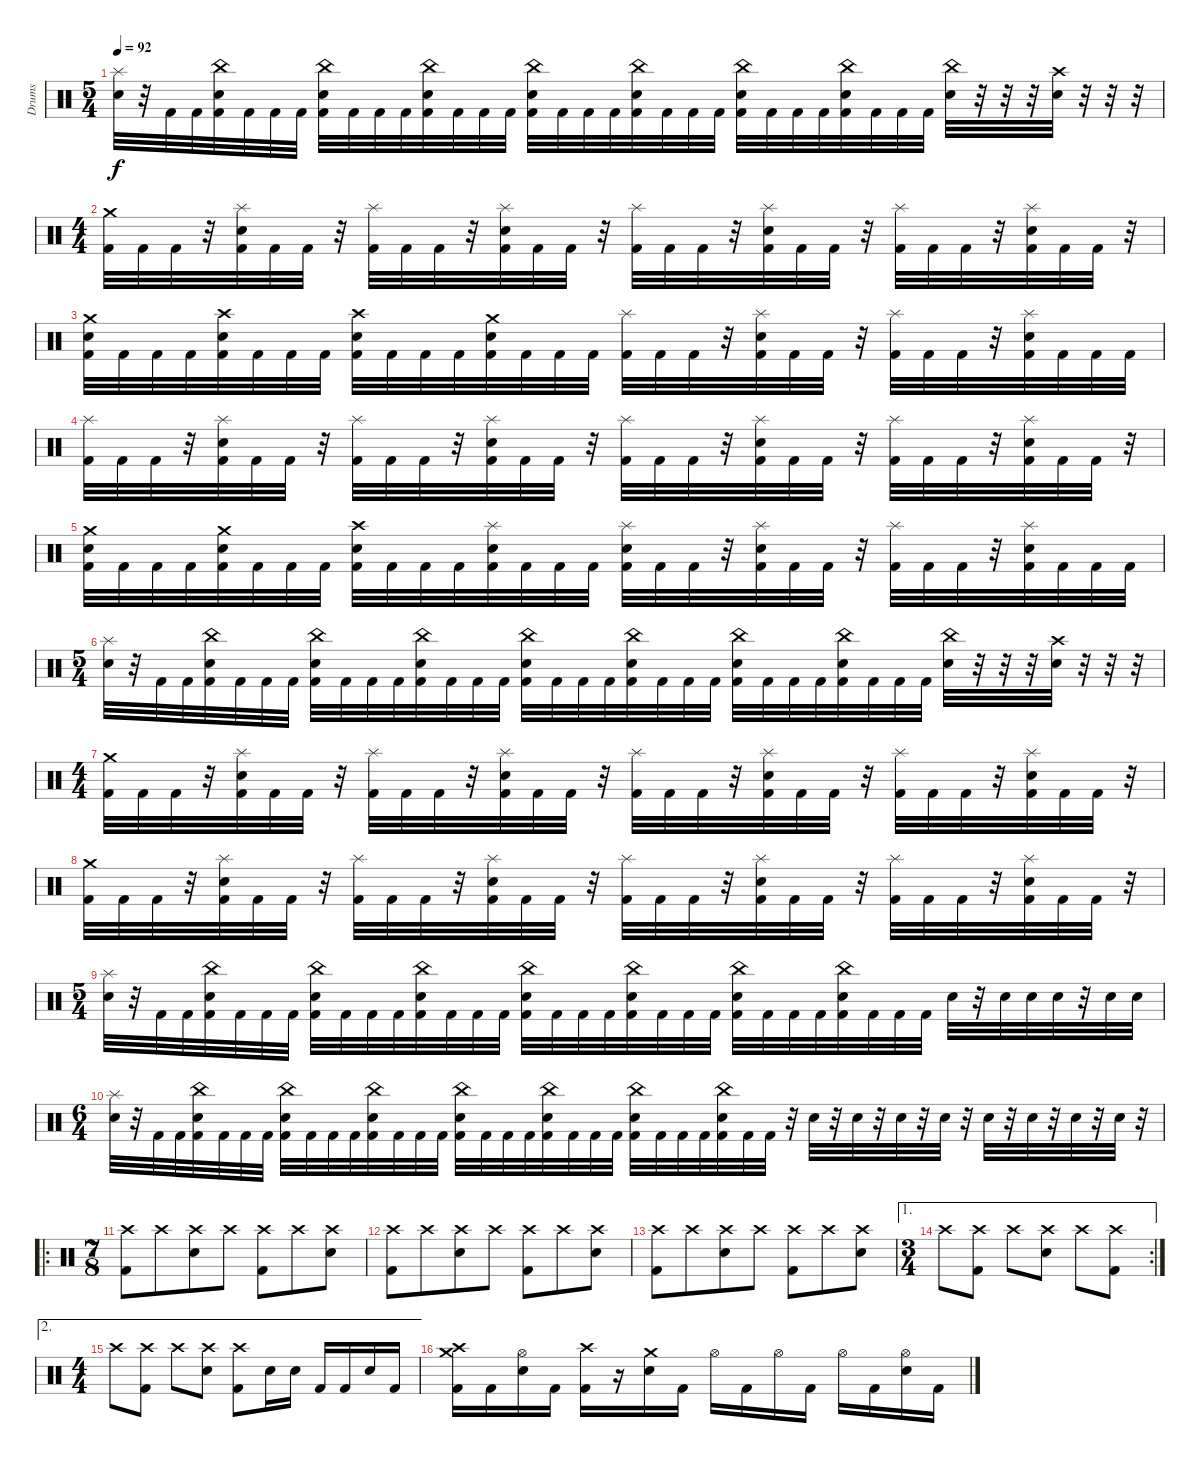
\track ("Drums" "Drums") {instrument percussion}
\staff {score}
\articulation defaults
\ts (5 4)
\tempo 92
\clef neutral
\ks c
("Splash (hit)" "Snare (hit) 2").32{dy f} r.32 "Kick (hit) 2".32 "Kick (hit) 2".32 ("China (hit)" "Snare (hit) 2" "Kick (hit) 2").32 "Kick (hit) 2".32 "Kick (hit) 2".32 "Kick (hit) 2".32 ("China (hit)" "Snare (hit) 2" "Kick (hit) 2").32 "Kick (hit) 2".32 "Kick (hit) 2".32 "Kick (hit) 2".32 ("China (hit)" "Snare (hit) 2" "Kick (hit) 2").32 "Kick (hit) 2".32 "Kick (hit) 2".32 "Kick (hit) 2".32 ("China (hit)" "Snare (hit) 2" "Kick (hit) 2").32 "Kick (hit) 2".32 "Kick (hit) 2".32 "Kick (hit) 2".32 ("China (hit)" "Snare (hit) 2" "Kick (hit) 2").32 "Kick (hit) 2".32 "Kick (hit) 2".32 "Kick (hit) 2".32 ("China (hit)" "Snare (hit) 2" "Kick (hit) 2").32 "Kick (hit) 2".32 "Kick (hit) 2".32 "Kick (hit) 2".32 ("China (hit)" "Snare (hit) 2" "Kick (hit) 2").32 "Kick (hit) 2".32 "Kick (hit) 2".32 "Kick (hit) 2".32 ("China (hit)" "Snare (hit) 2").32 r.32 r.32 r.32 ("Crash high (hit)" "Snare (hit) 2").32 r.32 r.32 r.32 |
\ts (4 4)
("Crash medium (hit)" "Kick (hit) 2").32 "Kick (hit) 2".32 "Kick (hit) 2".32 r.32 ("Splash (hit)" "Snare (hit) 2" "Kick (hit) 2").32 "Kick (hit) 2".32 "Kick (hit) 2".32 r.32 ("Splash (hit)" "Kick (hit) 2").32 "Kick (hit) 2".32 "Kick (hit) 2".32 r.32 ("Splash (hit)" "Snare (hit) 2" "Kick (hit) 2").32 "Kick (hit) 2".32 "Kick (hit) 2".32 r.32 ("Splash (hit)" "Kick (hit) 2").32 "Kick (hit) 2".32 "Kick (hit) 2".32 r.32 ("Splash (hit)" "Snare (hit) 2" "Kick (hit) 2").32 "Kick (hit) 2".32 "Kick (hit) 2".32 r.32 ("Splash (hit)" "Kick (hit) 2").32 "Kick (hit) 2".32 "Kick (hit) 2".32 r.32 ("Splash (hit)" "Snare (hit) 2" "Kick (hit) 2").32 "Kick (hit) 2".32 "Kick (hit) 2".32 r.32 |
("Crash medium (hit)" "Snare (hit) 2" "Kick (hit) 2").32 "Kick (hit) 2".32 "Kick (hit) 2".32 "Kick (hit) 2".32 ("Crash high (hit)" "Snare (hit) 2" "Kick (hit) 2").32 "Kick (hit) 2".32 "Kick (hit) 2".32 "Kick (hit) 2".32 ("Crash high (hit)" "Snare (hit) 2" "Kick (hit) 2").32 "Kick (hit) 2".32 "Kick (hit) 2".32 "Kick (hit) 2".32 ("Crash medium (hit)" "Snare (hit) 2" "Kick (hit) 2").32 "Kick (hit) 2".32 "Kick (hit) 2".32 "Kick (hit) 2".32 ("Splash (hit)" "Kick (hit) 2").32 "Kick (hit) 2".32 "Kick (hit) 2".32 r.32 ("Splash (hit)" "Snare (hit) 2" "Kick (hit) 2").32 "Kick (hit) 2".32 "Kick (hit) 2".32 r.32 ("Splash (hit)" "Kick (hit) 2").32 "Kick (hit) 2".32 "Kick (hit) 2".32 r.32 ("Splash (hit)" "Snare (hit) 2" "Kick (hit) 2").32 "Kick (hit) 2".32 "Kick (hit) 2".32 "Kick (hit) 2".32 |
("Splash (hit)" "Kick (hit) 2").32 "Kick (hit) 2".32 "Kick (hit) 2".32 r.32 ("Splash (hit)" "Snare (hit) 2" "Kick (hit) 2").32 "Kick (hit) 2".32 "Kick (hit) 2".32 r.32 ("Splash (hit)" "Kick (hit) 2").32 "Kick (hit) 2".32 "Kick (hit) 2".32 r.32 ("Splash (hit)" "Snare (hit) 2" "Kick (hit) 2").32 "Kick (hit) 2".32 "Kick (hit) 2".32 r.32 ("Splash (hit)" "Kick (hit) 2").32 "Kick (hit) 2".32 "Kick (hit) 2".32 r.32 ("Splash (hit)" "Snare (hit) 2" "Kick (hit) 2").32 "Kick (hit) 2".32 "Kick (hit) 2".32 r.32 ("Splash (hit)" "Kick (hit) 2").32 "Kick (hit) 2".32 "Kick (hit) 2".32 r.32 ("Splash (hit)" "Snare (hit) 2" "Kick (hit) 2").32 "Kick (hit) 2".32 "Kick (hit) 2".32 r.32 |
("Crash medium (hit)" "Snare (hit) 2" "Kick (hit) 2").32 "Kick (hit) 2".32 "Kick (hit) 2".32 "Kick (hit) 2".32 ("Crash medium (hit)" "Snare (hit) 2" "Kick (hit) 2").32 "Kick (hit) 2".32 "Kick (hit) 2".32 "Kick (hit) 2".32 ("Crash high (hit)" "Snare (hit) 2" "Kick (hit) 2").32 "Kick (hit) 2".32 "Kick (hit) 2".32 "Kick (hit) 2".32 ("Splash (hit)" "Snare (hit) 2" "Kick (hit) 2").32 "Kick (hit) 2".32 "Kick (hit) 2".32 "Kick (hit) 2".32 ("Splash (hit)" "Snare (hit) 2" "Kick (hit) 2").32 "Kick (hit) 2".32 "Kick (hit) 2".32 r.32 ("Splash (hit)" "Snare (hit) 2" "Kick (hit) 2").32 "Kick (hit) 2".32 "Kick (hit) 2".32 r.32 ("Splash (hit)" "Kick (hit) 2").32 "Kick (hit) 2".32 "Kick (hit) 2".32 r.32 ("Splash (hit)" "Snare (hit) 2" "Kick (hit) 2").32 "Kick (hit) 2".32 "Kick (hit) 2".32 "Kick (hit) 2".32 |
\ts (5 4)
("Splash (hit)" "Snare (hit) 2").32 r.32 "Kick (hit) 2".32 "Kick (hit) 2".32 ("China (hit)" "Snare (hit) 2" "Kick (hit) 2").32 "Kick (hit) 2".32 "Kick (hit) 2".32 "Kick (hit) 2".32 ("China (hit)" "Snare (hit) 2" "Kick (hit) 2").32 "Kick (hit) 2".32 "Kick (hit) 2".32 "Kick (hit) 2".32 ("China (hit)" "Snare (hit) 2" "Kick (hit) 2").32 "Kick (hit) 2".32 "Kick (hit) 2".32 "Kick (hit) 2".32 ("China (hit)" "Snare (hit) 2" "Kick (hit) 2").32 "Kick (hit) 2".32 "Kick (hit) 2".32 "Kick (hit) 2".32 ("China (hit)" "Snare (hit) 2" "Kick (hit) 2").32 "Kick (hit) 2".32 "Kick (hit) 2".32 "Kick (hit) 2".32 ("China (hit)" "Snare (hit) 2" "Kick (hit) 2").32 "Kick (hit) 2".32 "Kick (hit) 2".32 "Kick (hit) 2".32 ("China (hit)" "Snare (hit) 2" "Kick (hit) 2").32 "Kick (hit) 2".32 "Kick (hit) 2".32 "Kick (hit) 2".32 ("China (hit)" "Snare (hit) 2").32 r.32 r.32 r.32 ("Crash high (hit)" "Snare (hit) 2").32 r.32 r.32 r.32 |
\ts (4 4)
("Crash medium (hit)" "Kick (hit) 2").32 "Kick (hit) 2".32 "Kick (hit) 2".32 r.32 ("Splash (hit)" "Snare (hit) 2" "Kick (hit) 2").32 "Kick (hit) 2".32 "Kick (hit) 2".32 r.32 ("Splash (hit)" "Kick (hit) 2").32 "Kick (hit) 2".32 "Kick (hit) 2".32 r.32 ("Splash (hit)" "Snare (hit) 2" "Kick (hit) 2").32 "Kick (hit) 2".32 "Kick (hit) 2".32 r.32 ("Splash (hit)" "Kick (hit) 2").32 "Kick (hit) 2".32 "Kick (hit) 2".32 r.32 ("Splash (hit)" "Snare (hit) 2" "Kick (hit) 2").32 "Kick (hit) 2".32 "Kick (hit) 2".32 r.32 ("Splash (hit)" "Kick (hit) 2").32 "Kick (hit) 2".32 "Kick (hit) 2".32 r.32 ("Splash (hit)" "Snare (hit) 2" "Kick (hit) 2").32 "Kick (hit) 2".32 "Kick (hit) 2".32 r.32 |
("Crash medium (hit)" "Kick (hit) 2").32 "Kick (hit) 2".32 "Kick (hit) 2".32 r.32 ("Splash (hit)" "Snare (hit) 2" "Kick (hit) 2").32 "Kick (hit) 2".32 "Kick (hit) 2".32 r.32 ("Splash (hit)" "Kick (hit) 2").32 "Kick (hit) 2".32 "Kick (hit) 2".32 r.32 ("Splash (hit)" "Snare (hit) 2" "Kick (hit) 2").32 "Kick (hit) 2".32 "Kick (hit) 2".32 r.32 ("Splash (hit)" "Kick (hit) 2").32 "Kick (hit) 2".32 "Kick (hit) 2".32 r.32 ("Splash (hit)" "Snare (hit) 2" "Kick (hit) 2").32 "Kick (hit) 2".32 "Kick (hit) 2".32 r.32 ("Splash (hit)" "Kick (hit) 2").32 "Kick (hit) 2".32 "Kick (hit) 2".32 r.32 ("Splash (hit)" "Snare (hit) 2" "Kick (hit) 2").32 "Kick (hit) 2".32 "Kick (hit) 2".32 r.32 |
\ts (5 4)
("Splash (hit)" "Snare (hit) 2").32 r.32 "Kick (hit) 2".32 "Kick (hit) 2".32 ("China (hit)" "Snare (hit) 2" "Kick (hit) 2").32 "Kick (hit) 2".32 "Kick (hit) 2".32 "Kick (hit) 2".32 ("China (hit)" "Snare (hit) 2" "Kick (hit) 2").32 "Kick (hit) 2".32 "Kick (hit) 2".32 "Kick (hit) 2".32 ("China (hit)" "Snare (hit) 2" "Kick (hit) 2").32 "Kick (hit) 2".32 "Kick (hit) 2".32 "Kick (hit) 2".32 ("China (hit)" "Snare (hit) 2" "Kick (hit) 2").32 "Kick (hit) 2".32 "Kick (hit) 2".32 "Kick (hit) 2".32 ("China (hit)" "Snare (hit) 2" "Kick (hit) 2").32 "Kick (hit) 2".32 "Kick (hit) 2".32 "Kick (hit) 2".32 ("China (hit)" "Snare (hit) 2" "Kick (hit) 2").32 "Kick (hit) 2".32 "Kick (hit) 2".32 "Kick (hit) 2".32 ("China (hit)" "Snare (hit) 2" "Kick (hit) 2").32 "Kick (hit) 2".32 "Kick (hit) 2".32 "Kick (hit) 2".32 "Snare (hit) 2".32 r.32 "Snare (hit) 2".32 "Snare (hit) 2".32 "Snare (hit) 2".32 r.32 "Snare (hit) 2".32 "Snare (hit) 2".32 |
\ts (6 4)
("Splash (hit)" "Snare (hit) 2").32 r.32 "Kick (hit) 2".32 "Kick (hit) 2".32 ("China (hit)" "Snare (hit) 2" "Kick (hit) 2").32 "Kick (hit) 2".32 "Kick (hit) 2".32 "Kick (hit) 2".32 ("China (hit)" "Snare (hit) 2" "Kick (hit) 2").32 "Kick (hit) 2".32 "Kick (hit) 2".32 "Kick (hit) 2".32 ("China (hit)" "Snare (hit) 2" "Kick (hit) 2").32 "Kick (hit) 2".32 "Kick (hit) 2".32 "Kick (hit) 2".32 ("China (hit)" "Snare (hit) 2" "Kick (hit) 2").32 "Kick (hit) 2".32 "Kick (hit) 2".32 "Kick (hit) 2".32 ("China (hit)" "Snare (hit) 2" "Kick (hit) 2").32 "Kick (hit) 2".32 "Kick (hit) 2".32 "Kick (hit) 2".32 ("China (hit)" "Snare (hit) 2" "Kick (hit) 2").32 "Kick (hit) 2".32 "Kick (hit) 2".32 "Kick (hit) 2".32 ("China (hit)" "Snare (hit) 2" "Kick (hit) 2").32 "Kick (hit) 2".32 "Kick (hit) 2".32 r.32 "Snare (hit) 2".32 r.32 "Snare (hit) 2".32 r.32 "Snare (hit) 2".32 r.32 "Snare (hit) 2".32 r.32 "Snare (hit) 2".32 r.32 "Snare (hit) 2".32 r.32 "Snare (hit) 2".32 r.32 "Snare (hit) 2".32 r.32 |
\ro
\ts (7 8)
("Crash high (hit)" "Kick (hit) 2").8 "Crash high (hit)".8 ("Crash high (hit)" "Snare (hit) 2").8 "Crash high (hit)".8 ("Crash high (hit)" "Kick (hit) 2").8 "Crash high (hit)".8 ("Crash high (hit)" "Snare (hit) 2").8 |
("Crash high (hit)" "Kick (hit) 2").8 "Crash high (hit)".8 ("Crash high (hit)" "Snare (hit) 2").8 "Crash high (hit)".8 ("Crash high (hit)" "Kick (hit) 2").8 "Crash high (hit)".8 ("Crash high (hit)" "Snare (hit) 2").8 |
("Crash high (hit)" "Kick (hit) 2").8 "Crash high (hit)".8 ("Crash high (hit)" "Snare (hit) 2").8 "Crash high (hit)".8 ("Crash high (hit)" "Kick (hit) 2").8 "Crash high (hit)".8 ("Crash high (hit)" "Snare (hit) 2").8 |
\ae 1
\rc 2
\ts (3 4)
"Crash high (hit)".8 ("Crash high (hit)" "Kick (hit) 2").8 "Crash high (hit)".8 ("Crash high (hit)" "Snare (hit) 2").8 "Crash high (hit)".8 ("Crash high (hit)" "Kick (hit) 2").8 |
\ae 2
\ts (4 4)
"Crash high (hit)".8 ("Crash high (hit)" "Kick (hit) 2").8 "Crash high (hit)".8 ("Crash high (hit)" "Snare (hit) 2").8 ("Crash high (hit)" "Kick (hit) 2").8 "Snare (hit) 2".16 "Snare (hit) 2".16 "Kick (hit) 2".16 "Kick (hit) 2".16 "Snare (hit) 2".16 "Kick (hit) 2".16 |
("Crash high (hit)" "Crash medium (hit)" "Kick (hit) 2").16 "Kick (hit) 2".16 ("Hi-Hat (open)" "Snare (hit) 2").16 "Kick (hit) 2".16 ("Crash high (hit)" "Kick (hit) 2").16 r.16 ("Crash medium (hit)" "Snare (hit) 2").16 "Kick (hit) 2".16 "Hi-Hat (open)".16 "Kick (hit) 2".16 "Hi-Hat (open)".16 "Kick (hit) 2".16 "Hi-Hat (open)".16 "Kick (hit) 2".16 ("Hi-Hat (open)" "Snare (hit) 2").16 "Kick (hit) 2".16
